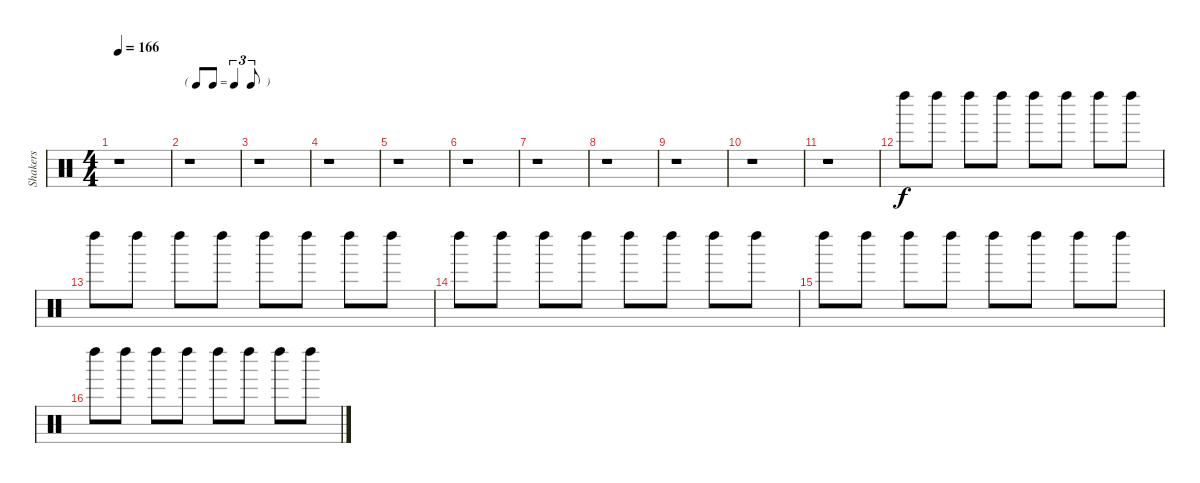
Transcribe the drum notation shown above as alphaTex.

\track ("Shakers" "Shakers") {instrument percussion}
\staff {score}
\articulation defaults
\ts (4 4)
\tempo 166
\clef neutral
\ks c
r.1{dy f} |
\tf triplet8th
r.1 |
r.1 |
r.1 |
r.1 |
r.1 |
r.1 |
r.1 |
r.1 |
r.1 |
r.1 |
"Left Maraca (hit)".8 "Left Maraca (hit)".8 "Left Maraca (hit)".8 "Left Maraca (hit)".8 "Left Maraca (hit)".8 "Left Maraca (hit)".8 "Left Maraca (hit)".8 "Left Maraca (hit)".8 |
"Left Maraca (hit)".8 "Left Maraca (hit)".8 "Left Maraca (hit)".8 "Left Maraca (hit)".8 "Left Maraca (hit)".8 "Left Maraca (hit)".8 "Left Maraca (hit)".8 "Left Maraca (hit)".8 |
"Left Maraca (hit)".8 "Left Maraca (hit)".8 "Left Maraca (hit)".8 "Left Maraca (hit)".8 "Left Maraca (hit)".8 "Left Maraca (hit)".8 "Left Maraca (hit)".8 "Left Maraca (hit)".8 |
"Left Maraca (hit)".8 "Left Maraca (hit)".8 "Left Maraca (hit)".8 "Left Maraca (hit)".8 "Left Maraca (hit)".8 "Left Maraca (hit)".8 "Left Maraca (hit)".8 "Left Maraca (hit)".8 |
"Left Maraca (hit)".8 "Left Maraca (hit)".8 "Left Maraca (hit)".8 "Left Maraca (hit)".8 "Left Maraca (hit)".8 "Left Maraca (hit)".8 "Left Maraca (hit)".8 "Left Maraca (hit)".8
